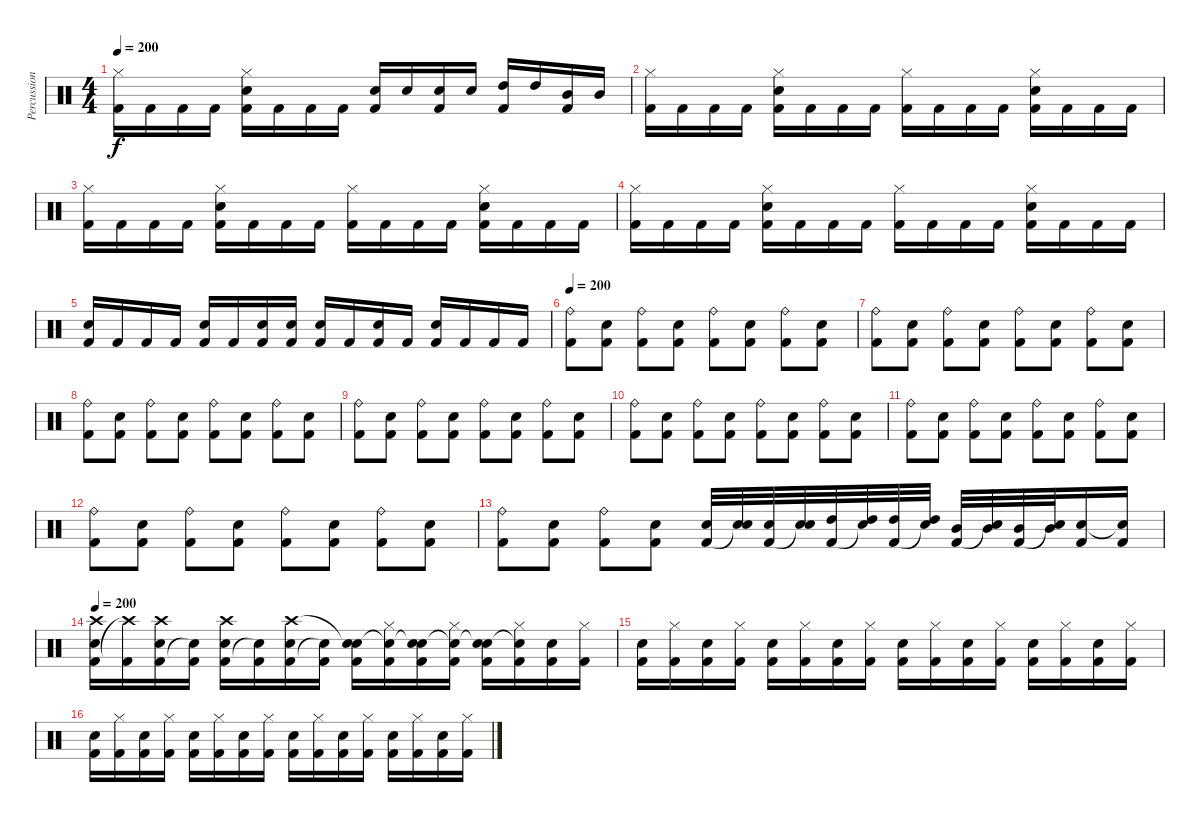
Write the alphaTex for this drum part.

\track ("Percussion" "Percussion") {instrument percussion}
\staff {score}
\articulation defaults
\ts (4 4)
\tempo 200
\clef neutral
\ks c
("Hi-Hat (closed)" "Kick (hit) 2").16{dy f} "Kick (hit) 2".16 "Kick (hit) 2".16 "Kick (hit) 2".16 ("Hi-Hat (closed)" "Snare (hit) 2" "Kick (hit) 2").16 "Kick (hit) 2".16 "Kick (hit) 2".16 "Kick (hit) 2".16 ("Snare (hit) 2" "Kick (hit) 2").16 "Snare (hit) 2".16 ("Snare (hit) 2" "Kick (hit) 2").16 "Snare (hit) 2".16 ("High Tom (hit)" "Kick (hit) 2").16 "High Tom (hit)".16 ("Mid Tom (hit)" "Kick (hit) 2").16 "Mid Tom (hit)".16 |
("Hi-Hat (closed)" "Kick (hit) 2").16 "Kick (hit) 2".16 "Kick (hit) 2".16 "Kick (hit) 2".16 ("Hi-Hat (closed)" "Snare (hit) 2" "Kick (hit) 2").16 "Kick (hit) 2".16 "Kick (hit) 2".16 "Kick (hit) 2".16 ("Hi-Hat (closed)" "Kick (hit) 2").16 "Kick (hit) 2".16 "Kick (hit) 2".16 "Kick (hit) 2".16 ("Hi-Hat (closed)" "Snare (hit) 2" "Kick (hit) 2").16 "Kick (hit) 2".16 "Kick (hit) 2".16 "Kick (hit) 2".16 |
("Hi-Hat (closed)" "Kick (hit) 2").16 "Kick (hit) 2".16 "Kick (hit) 2".16 "Kick (hit) 2".16 ("Hi-Hat (closed)" "Snare (hit) 2" "Kick (hit) 2").16 "Kick (hit) 2".16 "Kick (hit) 2".16 "Kick (hit) 2".16 ("Hi-Hat (closed)" "Kick (hit) 2").16 "Kick (hit) 2".16 "Kick (hit) 2".16 "Kick (hit) 2".16 ("Hi-Hat (closed)" "Snare (hit) 2" "Kick (hit) 2").16 "Kick (hit) 2".16 "Kick (hit) 2".16 "Kick (hit) 2".16 |
("Hi-Hat (closed)" "Kick (hit) 2").16 "Kick (hit) 2".16 "Kick (hit) 2".16 "Kick (hit) 2".16 ("Hi-Hat (closed)" "Snare (hit) 2" "Kick (hit) 2").16 "Kick (hit) 2".16 "Kick (hit) 2".16 "Kick (hit) 2".16 ("Hi-Hat (closed)" "Kick (hit) 2").16 "Kick (hit) 2".16 "Kick (hit) 2".16 "Kick (hit) 2".16 ("Hi-Hat (closed)" "Snare (hit) 2" "Kick (hit) 2").16 "Kick (hit) 2".16 "Kick (hit) 2".16 "Kick (hit) 2".16 |
("Snare (hit) 2" "Kick (hit) 2").16 "Kick (hit) 2".16 "Kick (hit) 2".16 "Kick (hit) 2".16 ("Snare (hit) 2" "Kick (hit) 2").16 "Kick (hit) 2".16 ("Snare (hit) 2" "Kick (hit) 2").16 ("Snare (hit) 2" "Kick (hit) 2").16 ("Snare (hit) 2" "Kick (hit) 2").16 "Kick (hit) 2".16 ("Snare (hit) 2" "Kick (hit) 2").16 "Kick (hit) 2".16 ("Snare (hit) 2" "Kick (hit) 2").16 "Kick (hit) 2".16 "Kick (hit) 2".16 "Kick (hit) 2".16 |
\tempo 200
("Ride (bell)" "Kick (hit) 2").8 ("Snare (hit) 2" "Kick (hit) 2").8 ("Ride (bell)" "Kick (hit) 2").8 ("Snare (hit) 2" "Kick (hit) 2").8 ("Ride (bell)" "Kick (hit) 2").8 ("Snare (hit) 2" "Kick (hit) 2").8 ("Ride (bell)" "Kick (hit) 2").8 ("Snare (hit) 2" "Kick (hit) 2").8 |
("Ride (bell)" "Kick (hit) 2").8 ("Snare (hit) 2" "Kick (hit) 2").8 ("Ride (bell)" "Kick (hit) 2").8 ("Snare (hit) 2" "Kick (hit) 2").8 ("Ride (bell)" "Kick (hit) 2").8 ("Snare (hit) 2" "Kick (hit) 2").8 ("Ride (bell)" "Kick (hit) 2").8 ("Snare (hit) 2" "Kick (hit) 2").8 |
("Ride (bell)" "Kick (hit) 2").8 ("Snare (hit) 2" "Kick (hit) 2").8 ("Ride (bell)" "Kick (hit) 2").8 ("Snare (hit) 2" "Kick (hit) 2").8 ("Ride (bell)" "Kick (hit) 2").8 ("Snare (hit) 2" "Kick (hit) 2").8 ("Ride (bell)" "Kick (hit) 2").8 ("Snare (hit) 2" "Kick (hit) 2").8 |
("Ride (bell)" "Kick (hit) 2").8 ("Snare (hit) 2" "Kick (hit) 2").8 ("Ride (bell)" "Kick (hit) 2").8 ("Snare (hit) 2" "Kick (hit) 2").8 ("Ride (bell)" "Kick (hit) 2").8 ("Snare (hit) 2" "Kick (hit) 2").8 ("Ride (bell)" "Kick (hit) 2").8 ("Snare (hit) 2" "Kick (hit) 2").8 |
("Ride (bell)" "Kick (hit) 2").8 ("Snare (hit) 2" "Kick (hit) 2").8 ("Ride (bell)" "Kick (hit) 2").8 ("Snare (hit) 2" "Kick (hit) 2").8 ("Ride (bell)" "Kick (hit) 2").8 ("Snare (hit) 2" "Kick (hit) 2").8 ("Ride (bell)" "Kick (hit) 2").8 ("Snare (hit) 2" "Kick (hit) 2").8 |
("Ride (bell)" "Kick (hit) 2").8 ("Snare (hit) 2" "Kick (hit) 2").8 ("Ride (bell)" "Kick (hit) 2").8 ("Snare (hit) 2" "Kick (hit) 2").8 ("Ride (bell)" "Kick (hit) 2").8 ("Snare (hit) 2" "Kick (hit) 2").8 ("Ride (bell)" "Kick (hit) 2").8 ("Snare (hit) 2" "Kick (hit) 2").8 |
("Ride (bell)" "Kick (hit) 2").8 ("Snare (hit) 2" "Kick (hit) 2").8 ("Ride (bell)" "Kick (hit) 2").8 ("Snare (hit) 2" "Kick (hit) 2").8 ("Ride (bell)" "Kick (hit) 2").8 ("Snare (hit) 2" "Kick (hit) 2").8 ("Ride (bell)" "Kick (hit) 2").8 ("Snare (hit) 2" "Kick (hit) 2").8 |
("Ride (bell)" "Kick (hit) 2").8 ("Snare (hit) 2" "Kick (hit) 2").8 ("Ride (bell)" "Kick (hit) 2").8 ("Snare (hit) 2" "Kick (hit) 2").8 ("Snare (hit) 2" "Kick (hit) 2").32 ("Snare (hit) 2" "Snare (hit)"{t}).32 ("Snare (hit) 2" "Kick (hit) 2").32 ("Snare (hit) 2" "Snare (hit)"{t}).32 ("High Tom (hit)" "Kick (hit) 2").32 ("High Tom (hit)" "Snare (hit)"{t}).32 ("High Tom (hit)" "Kick (hit) 2").32 ("High Tom (hit)" "Snare (hit)"{t}).32 ("Mid Tom (hit)" "Kick (hit) 2").32 ("Mid Tom (hit)" "Snare (hit)"{t}).32 ("Mid Tom (hit)" "Kick (hit) 2").32 ("Mid Tom (hit)" "Snare (hit)"{t}).32 ("Snare (hit) 2" "Kick (hit) 2").16 ("Snare (hit)"{t} "Kick (hit) 2").16 |
\tempo 200
("Snare (hit) 2" "Kick (hit) 2" "Crash high (hit)").16 ("Kick (hit) 2" "Crash high (hit)"{t}).16 ("Snare (hit) 2" "Kick (hit) 2" "Crash high (hit)").16 ("Kick (hit) 2" "Snare (hit)"{t}).16 ("Snare (hit) 2" "Kick (hit) 2" "Crash high (hit)").16 ("Kick (hit) 2" "Snare (hit)"{t}).16 ("Snare (hit) 2" "Kick (hit) 2" "Crash high (hit)").16 ("Kick (hit) 2" "Snare (hit)"{t}).16 ("Snare (hit) 2" "Kick (hit) 2" "Snare (hit)"{t}).16 ("Hi-Hat (closed)" "Kick (hit) 2" "Snare (hit)"{t}).16 ("Snare (hit) 2" "Kick (hit) 2" "Snare (hit)"{t}).16 ("Hi-Hat (closed)" "Kick (hit) 2" "Snare (hit)"{t}).16 ("Snare (hit) 2" "Kick (hit) 2" "Snare (hit)"{t}).16 ("Hi-Hat (closed)" "Kick (hit) 2" "Snare (hit)"{t}).16 ("Snare (hit) 2" "Kick (hit) 2").16 ("Hi-Hat (closed)" "Kick (hit) 2").16 |
("Snare (hit) 2" "Kick (hit) 2").16 ("Hi-Hat (closed)" "Kick (hit) 2").16 ("Snare (hit) 2" "Kick (hit) 2").16 ("Hi-Hat (closed)" "Kick (hit) 2").16 ("Snare (hit) 2" "Kick (hit) 2").16 ("Hi-Hat (closed)" "Kick (hit) 2").16 ("Snare (hit) 2" "Kick (hit) 2").16 ("Hi-Hat (closed)" "Kick (hit) 2").16 ("Snare (hit) 2" "Kick (hit) 2").16 ("Hi-Hat (closed)" "Kick (hit) 2").16 ("Snare (hit) 2" "Kick (hit) 2").16 ("Hi-Hat (closed)" "Kick (hit) 2").16 ("Snare (hit) 2" "Kick (hit) 2").16 ("Hi-Hat (closed)" "Kick (hit) 2").16 ("Snare (hit) 2" "Kick (hit) 2").16 ("Hi-Hat (closed)" "Kick (hit) 2").16 |
("Snare (hit) 2" "Kick (hit) 2").16 ("Hi-Hat (closed)" "Kick (hit) 2").16 ("Snare (hit) 2" "Kick (hit) 2").16 ("Hi-Hat (closed)" "Kick (hit) 2").16 ("Snare (hit) 2" "Kick (hit) 2").16 ("Hi-Hat (closed)" "Kick (hit) 2").16 ("Snare (hit) 2" "Kick (hit) 2").16 ("Hi-Hat (closed)" "Kick (hit) 2").16 ("Snare (hit) 2" "Kick (hit) 2").16 ("Hi-Hat (closed)" "Kick (hit) 2").16 ("Snare (hit) 2" "Kick (hit) 2").16 ("Hi-Hat (closed)" "Kick (hit) 2").16 ("Snare (hit) 2" "Kick (hit) 2").16 ("Hi-Hat (closed)" "Kick (hit) 2").16 ("Snare (hit) 2" "Kick (hit) 2").16 ("Hi-Hat (closed)" "Kick (hit) 2").16
